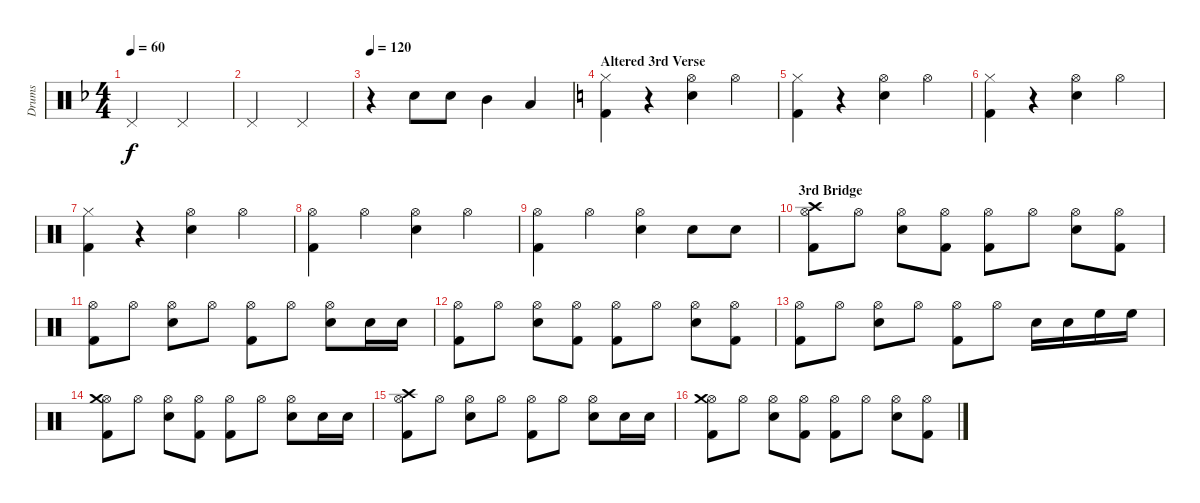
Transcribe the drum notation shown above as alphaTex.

\track ("Drums" "Drums") {instrument percussion}
\staff {score}
\articulation defaults
\ts (4 4)
\tempo 60
\clef neutral
\ks dminor "Pedal Hi-Hat (hit)".2{dy f} "Pedal Hi-Hat (hit)".2
|
"Pedal Hi-Hat (hit)".2 "Pedal Hi-Hat (hit)".2 |
\tempo 120
r.4 "Snare (hit) 2".8 "Snare (hit) 2".8 "Mid Tom (hit)".4 "Low Tom (hit)".4 |
\section ("" "Altered 3rd Verse")
\ks c
("Hi-Hat (closed)" "Kick (hit) 2").4 r.4 ("Hi-Hat (open)" "Snare (hit) 2").4 "Hi-Hat (open)".4 |
("Hi-Hat (closed)" "Kick (hit) 2").4 r.4 ("Hi-Hat (open)" "Snare (hit) 2").4 "Hi-Hat (open)".4 |
("Hi-Hat (closed)" "Kick (hit) 2").4 r.4 ("Hi-Hat (open)" "Snare (hit) 2").4 "Hi-Hat (open)".4 |
("Hi-Hat (closed)" "Kick (hit) 2").4 r.4 ("Hi-Hat (open)" "Snare (hit) 2").4 "Hi-Hat (open)".4 |
("Hi-Hat (open)" "Kick (hit) 2").4 "Hi-Hat (open)".4 ("Hi-Hat (open)" "Snare (hit) 2").4 "Hi-Hat (open)".4 |
("Hi-Hat (open)" "Kick (hit) 2").4 "Hi-Hat (open)".4 ("Hi-Hat (open)" "Snare (hit) 2").4 "Snare (hit) 2".8 "Snare (hit) 2".8 |
\section ("" "3rd Bridge")
("Hi-Hat (open)" "Crash high (hit)" "Kick (hit) 2").8 "Hi-Hat (open)".8 ("Hi-Hat (open)" "Electric Snare (hit)").8 ("Hi-Hat (open)" "Kick (hit) 2").8 ("Hi-Hat (open)" "Kick (hit) 2").8 "Hi-Hat (open)".8 ("Hi-Hat (open)" "Electric Snare (hit)").8 ("Hi-Hat (open)" "Kick (hit) 2").8 |
("Hi-Hat (open)" "Kick (hit) 2").8 "Hi-Hat (open)".8 ("Hi-Hat (open)" "Electric Snare (hit)").8 "Hi-Hat (open)".8 ("Hi-Hat (open)" "Kick (hit) 2").8 "Hi-Hat (open)".8 ("Hi-Hat (open)" "Electric Snare (hit)").8 "Snare (hit) 2".16 "Snare (hit) 2".16 |
("Hi-Hat (open)" "Kick (hit) 2").8 "Hi-Hat (open)".8 ("Hi-Hat (open)" "Electric Snare (hit)").8 ("Hi-Hat (open)" "Kick (hit) 2").8 ("Hi-Hat (open)" "Kick (hit) 2").8 "Hi-Hat (open)".8 ("Hi-Hat (open)" "Electric Snare (hit)").8 ("Hi-Hat (open)" "Kick (hit) 2").8 |
("Hi-Hat (open)" "Kick (hit) 2").8 "Hi-Hat (open)".8 ("Hi-Hat (open)" "Electric Snare (hit)").8 "Hi-Hat (open)".8 ("Hi-Hat (open)" "Kick (hit) 2").8 "Hi-Hat (open)".8 "Snare (hit) 2".16 "Snare (hit) 2".16 "High Floor Tom (hit)".16 "High Floor Tom (hit)".16 |
("Hi-Hat (open)" "Crash medium (hit)" "Kick (hit) 2").8 "Hi-Hat (open)".8 ("Hi-Hat (open)" "Electric Snare (hit)").8 ("Hi-Hat (open)" "Kick (hit) 2").8 ("Hi-Hat (open)" "Kick (hit) 2").8 "Hi-Hat (open)".8 ("Hi-Hat (open)" "Electric Snare (hit)").8 "Snare (hit) 2".16 "Snare (hit) 2".16 |
("Hi-Hat (open)" "Crash high (hit)" "Kick (hit) 2").8 "Hi-Hat (open)".8 ("Hi-Hat (open)" "Electric Snare (hit)").8 "Hi-Hat (open)".8 ("Hi-Hat (open)" "Kick (hit) 2").8 "Hi-Hat (open)".8 ("Hi-Hat (open)" "Electric Snare (hit)").8 "Snare (hit) 2".16 "Snare (hit) 2".16 |
("Hi-Hat (open)" "Crash medium (hit)" "Kick (hit) 2").8 "Hi-Hat (open)".8 ("Hi-Hat (open)" "Electric Snare (hit)").8 ("Hi-Hat (open)" "Kick (hit) 2").8 ("Hi-Hat (open)" "Kick (hit) 2").8 "Hi-Hat (open)".8 ("Hi-Hat (open)" "Electric Snare (hit)").8 ("Hi-Hat (open)" "Kick (hit) 2").8
